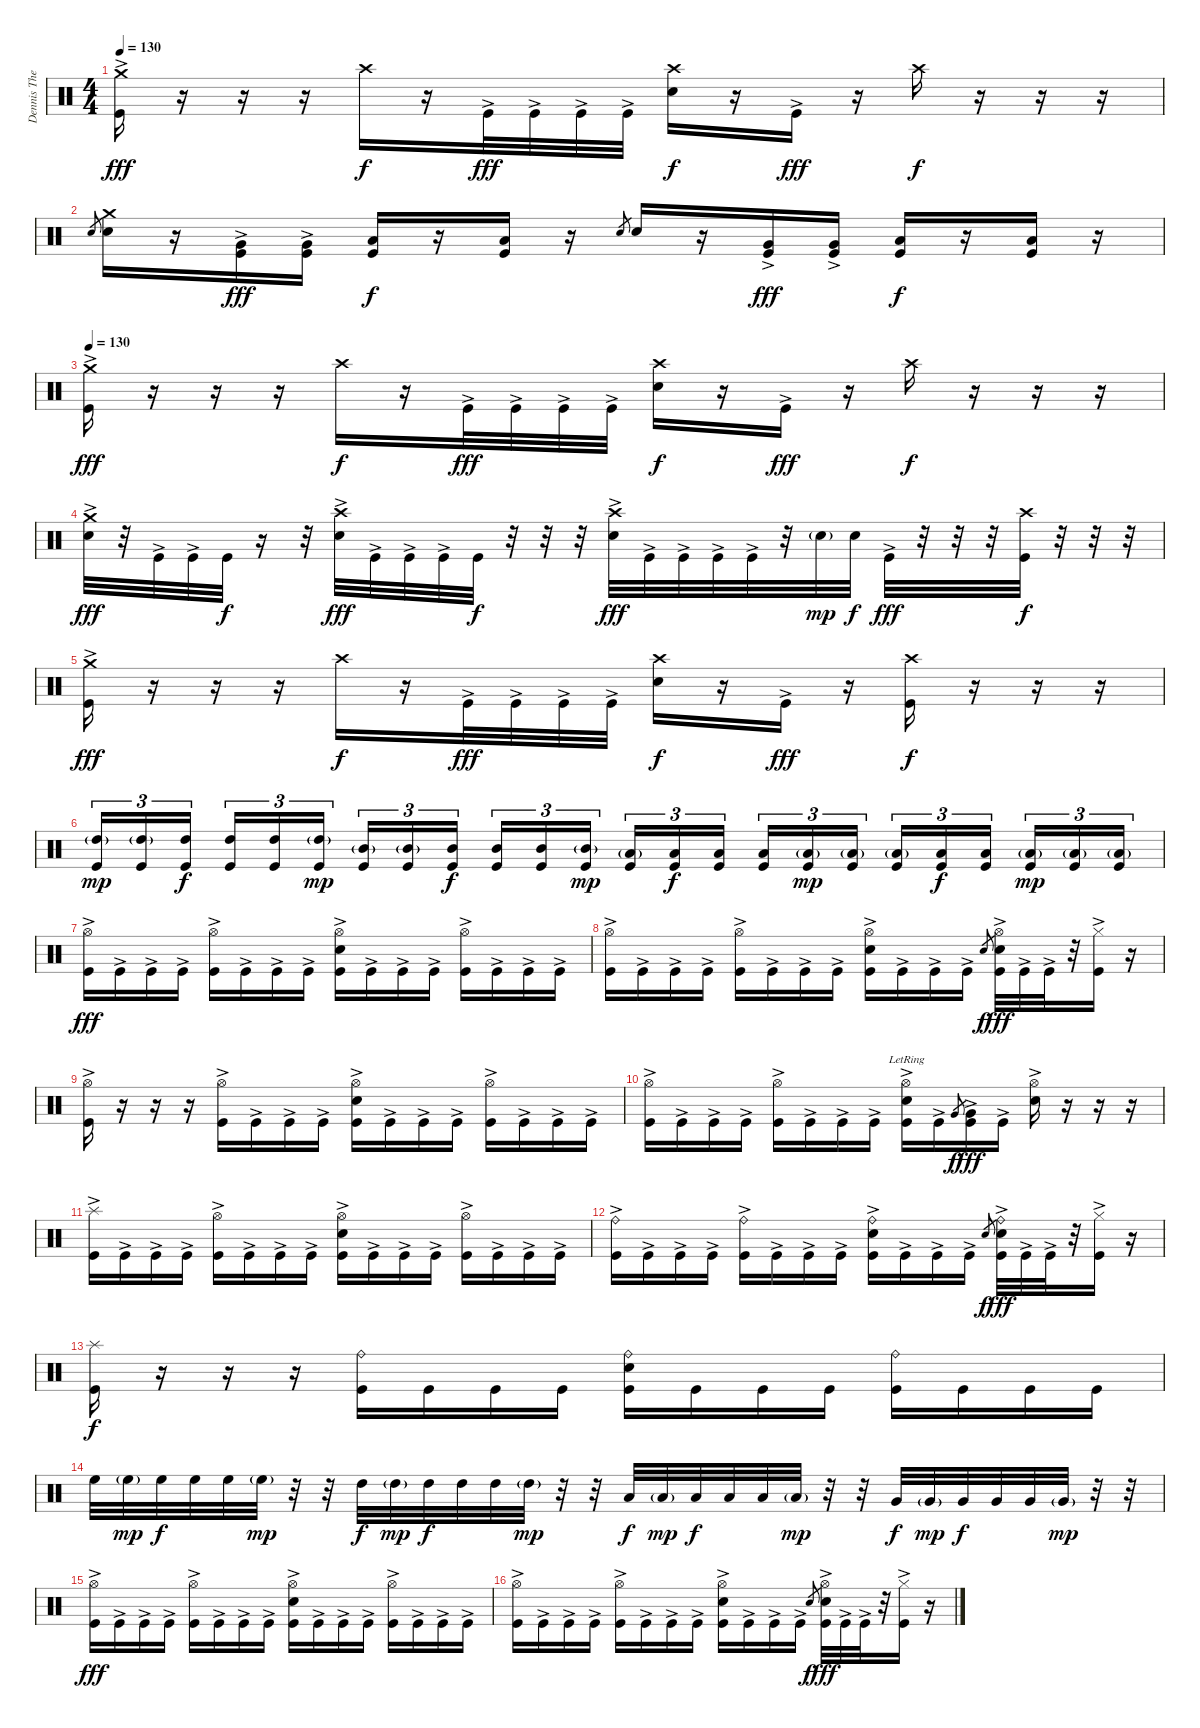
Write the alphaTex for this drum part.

\track ("Dennis The Menace" "Dennis The") {instrument percussion}
\staff {score}
\articulation defaults
\ts (4 4)
\tempo 130
\clef neutral
\ks c
("Crash medium (hit)" "Kick (hit)"{ac}).16{dy fff} r.16 r.16 r.16 "Crash high (hit)".16{dy f} r.16 "Kick (hit)"{ac}.32{dy fff} "Kick (hit)"{ac}.32 "Kick (hit)"{ac}.32 "Kick (hit)"{ac}.32 ("Crash high (hit)" "Electric Snare (hit)").16{dy f} r.16 "Kick (hit)"{ac}.16{dy fff} r.16 "Crash high (hit)".16{dy f} r.16 r.16 r.16 |
"Electric Snare (hit)".8{gr} ("Crash medium (hit)" "Electric Snare (hit)").16 r.16 ("Very Low Tom (hit)" "Kick (hit)"{ac}).16{dy fff} ("Very Low Tom (hit)" "Kick (hit)"{ac}).16 ("Low Floor Tom (hit)" "Kick (hit)").16{dy f} r.16 ("Low Floor Tom (hit)" "Kick (hit)").16 r.16 "Electric Snare (hit)".8{gr} "Electric Snare (hit)".16 r.16 ("Very Low Tom (hit)" "Kick (hit)"{ac}).16{dy fff} ("Very Low Tom (hit)" "Kick (hit)"{ac}).16 ("Low Floor Tom (hit)" "Kick (hit)").16{dy f} r.16 ("Low Floor Tom (hit)" "Kick (hit)").16 r.16 |
\tempo 130
("Crash medium (hit)" "Kick (hit)"{ac}).16{dy fff} r.16 r.16 r.16 "Crash high (hit)".16{dy f} r.16 "Kick (hit)"{ac}.32{dy fff} "Kick (hit)"{ac}.32 "Kick (hit)"{ac}.32 "Kick (hit)"{ac}.32 ("Crash high (hit)" "Electric Snare (hit)").16{dy f} r.16 "Kick (hit)"{ac}.16{dy fff} r.16 "Crash high (hit)".16{dy f} r.16 r.16 r.16 |
("Crash medium (hit)" "Electric Snare (hit)"{ac}).32{dy fff} r.32 "Kick (hit)"{ac}.32 "Kick (hit)"{ac}.32 "Kick (hit)".32{dy f} r.16 r.32 ("Crash high (hit)" "Electric Snare (hit)"{ac}).32{dy fff} "Kick (hit)"{ac}.32 "Kick (hit)"{ac}.32 "Kick (hit)"{ac}.32 "Kick (hit)".32{dy f} r.32 r.32 r.32 ("Crash high (hit)" "Electric Snare (hit)"{ac}).32{dy fff} "Kick (hit)"{ac}.32 "Kick (hit)"{ac}.32 "Kick (hit)"{ac}.32 "Kick (hit)"{ac}.32 r.32 "Electric Snare (hit)"{g}.32{dy mp} "Electric Snare (hit)".32{dy f} "Kick (hit)"{ac}.32{dy fff} r.32 r.32 r.32 ("Crash high (hit)" "Kick (hit)").32{dy f} r.32 r.32 r.32 |
("Crash medium (hit)" "Kick (hit)"{ac}).16{dy fff} r.16 r.16 r.16 "Crash high (hit)".16{dy f} r.16 "Kick (hit)"{ac}.32{dy fff} "Kick (hit)"{ac}.32 "Kick (hit)"{ac}.32 "Kick (hit)"{ac}.32 ("Crash high (hit)" "Electric Snare (hit)").16{dy f} r.16 "Kick (hit)"{ac}.16{dy fff} r.16 ("Crash high (hit)" "Kick (hit)").16{dy f} r.16 r.16 r.16 |
("High Tom (hit)"{g} "Kick (hit)").16{tu (3 2) dy mp} ("High Tom (hit)"{g} "Kick (hit)").16{tu (3 2)} ("High Tom (hit)" "Kick (hit)").16{tu (3 2) dy f} ("High Tom (hit)" "Kick (hit)").16{tu (3 2)} ("High Tom (hit)" "Kick (hit)").16{tu (3 2)} ("High Tom (hit)"{g} "Kick (hit)").16{tu (3 2) dy mp} ("Mid Tom (hit)"{g} "Kick (hit)").16{tu (3 2)} ("Mid Tom (hit)"{g} "Kick (hit)").16{tu (3 2)} ("Mid Tom (hit)" "Kick (hit)").16{tu (3 2) dy f} ("Mid Tom (hit)" "Kick (hit)").16{tu (3 2)} ("Mid Tom (hit)" "Kick (hit)").16{tu (3 2)} ("Mid Tom (hit)"{g} "Kick (hit)").16{tu (3 2) dy mp} ("Low Tom (hit)"{g} "Kick (hit)").16{tu (3 2)} ("Low Tom (hit)" "Kick (hit)").16{tu (3 2) dy f} ("Low Tom (hit)" "Kick (hit)").16{tu (3 2)} ("Low Tom (hit)" "Kick (hit)").16{tu (3 2)} ("Low Tom (hit)"{g} "Kick (hit)").16{tu (3 2) dy mp} ("Low Tom (hit)"{g} "Kick (hit)").16{tu (3 2)} ("Low Floor Tom (hit)"{g} "Kick (hit)").16{tu (3 2)} ("Low Floor Tom (hit)" "Kick (hit)").16{tu (3 2) dy f} ("Low Floor Tom (hit)" "Kick (hit)").16{tu (3 2)} ("Low Floor Tom (hit)"{g} "Kick (hit)").16{tu (3 2) dy mp} ("Low Floor Tom (hit)"{g} "Kick (hit)").16{tu (3 2)} ("Low Floor Tom (hit)"{g} "Kick (hit)").16{tu (3 2)} |
("Hi-Hat (open)" "Kick (hit)"{ac}).16{dy fff} "Kick (hit)"{ac}.16 "Kick (hit)"{ac}.16 "Kick (hit)"{ac}.16 ("Hi-Hat (open)" "Kick (hit)"{ac}).16 "Kick (hit)"{ac}.16 "Kick (hit)"{ac}.16 "Kick (hit)"{ac}.16 ("Hi-Hat (open)" "Electric Snare (hit)" "Kick (hit)"{ac}).16 "Kick (hit)"{ac}.16 "Kick (hit)"{ac}.16 "Kick (hit)"{ac}.16 ("Hi-Hat (open)" "Kick (hit)"{ac}).16 "Kick (hit)"{ac}.16 "Kick (hit)"{ac}.16 "Kick (hit)"{ac}.16 |
("Hi-Hat (open)" "Kick (hit)"{ac}).16 "Kick (hit)"{ac}.16 "Kick (hit)"{ac}.16 "Kick (hit)"{ac}.16 ("Hi-Hat (open)" "Kick (hit)"{ac}).16 "Kick (hit)"{ac}.16 "Kick (hit)"{ac}.16 "Kick (hit)"{ac}.16 ("Hi-Hat (open)" "Electric Snare (hit)"{ac} "Kick (hit)"{ac}).16 "Kick (hit)"{ac}.16 "Kick (hit)"{ac}.16 "Kick (hit)"{ac}.16 "Electric Snare (hit)".8{gr dy f} ("Hi-Hat (open)" "Electric Snare (hit)"{ac} "Kick (hit)"{ac}).32{dy fff} "Kick (hit)"{ac}.32 "Kick (hit)"{ac}.32 r.32 ("Hi-Hat (closed)" "Kick (hit)"{ac}).16 r.16 |
("Hi-Hat (open)" "Kick (hit)"{ac}).16 r.16 r.16 r.16 ("Hi-Hat (open)" "Kick (hit)"{ac}).16 "Kick (hit)"{ac}.16 "Kick (hit)"{ac}.16 "Kick (hit)"{ac}.16 ("Hi-Hat (open)" "Electric Snare (hit)" "Kick (hit)"{ac}).16 "Kick (hit)"{ac}.16 "Kick (hit)"{ac}.16 "Kick (hit)"{ac}.16 ("Hi-Hat (open)" "Kick (hit)"{ac}).16 "Kick (hit)"{ac}.16 "Kick (hit)"{ac}.16 "Kick (hit)"{ac}.16 |
("Hi-Hat (open)" "Kick (hit)"{ac}).16 "Kick (hit)"{ac}.16 "Kick (hit)"{ac}.16 "Kick (hit)"{ac}.16 ("Hi-Hat (open)" "Kick (hit)"{ac}).16 "Kick (hit)"{ac}.16 "Kick (hit)"{ac}.16 "Kick (hit)"{ac}.16 ("Hi-Hat (open)" "Electric Snare (hit)"{ac lr} "Kick (hit)"{ac}).16 "Kick (hit)"{ac}.16 "Very Low Tom (hit)".8{gr dy f} ("Very Low Tom (hit)" "Kick (hit)"{ac}).16{dy fff} "Kick (hit)"{ac}.16 ("Hi-Hat (open)" "Electric Snare (hit)"{ac}).16 r.16 r.16 r.16 |
("Splash (hit)" "Kick (hit)"{ac}).16 "Kick (hit)"{ac}.16 "Kick (hit)"{ac}.16 "Kick (hit)"{ac}.16 ("Hi-Hat (open)" "Kick (hit)"{ac}).16 "Kick (hit)"{ac}.16 "Kick (hit)"{ac}.16 "Kick (hit)"{ac}.16 ("Hi-Hat (open)" "Electric Snare (hit)" "Kick (hit)"{ac}).16 "Kick (hit)"{ac}.16 "Kick (hit)"{ac}.16 "Kick (hit)"{ac}.16 ("Hi-Hat (open)" "Kick (hit)"{ac}).16 "Kick (hit)"{ac}.16 "Kick (hit)"{ac}.16 "Kick (hit)"{ac}.16 |
("Ride (bell)" "Kick (hit)"{ac}).16 "Kick (hit)"{ac}.16 "Kick (hit)"{ac}.16 "Kick (hit)"{ac}.16 ("Ride (bell)" "Kick (hit)"{ac}).16 "Kick (hit)"{ac}.16 "Kick (hit)"{ac}.16 "Kick (hit)"{ac}.16 ("Ride (bell)" "Electric Snare (hit)"{ac} "Kick (hit)"{ac}).16 "Kick (hit)"{ac}.16 "Kick (hit)"{ac}.16 "Kick (hit)"{ac}.16 "Electric Snare (hit)".8{gr dy f} ("Ride (bell)" "Electric Snare (hit)"{ac} "Kick (hit)"{ac}).32{dy fff} "Kick (hit)"{ac}.32 "Kick (hit)"{ac}.32 r.32 ("Hi-Hat (closed)" "Kick (hit)"{ac}).16 r.16 |
("Splash (hit)" "Kick (hit)").16{dy f} r.16 r.16 r.16 ("Ride (bell)" "Kick (hit)").16 "Kick (hit)".16 "Kick (hit)".16 "Kick (hit)".16 ("Ride (bell)" "Electric Snare (hit)" "Kick (hit)").16 "Kick (hit)".16 "Kick (hit)".16 "Kick (hit)".16 ("Ride (bell)" "Kick (hit)").16 "Kick (hit)".16 "Kick (hit)".16 "Kick (hit)".16 |
"High Floor Tom (hit)".32 "High Floor Tom (hit)"{g}.32{dy mp} "High Floor Tom (hit)".32{dy f} "High Floor Tom (hit)".32 "High Floor Tom (hit)".32 "High Floor Tom (hit)"{g}.32{dy mp} r.32 r.32 "High Tom (hit)".32{dy f} "High Tom (hit)"{g}.32{dy mp} "High Tom (hit)".32{dy f} "High Tom (hit)".32 "High Tom (hit)".32 "High Tom (hit)"{g}.32{dy mp} r.32 r.32 "Low Tom (hit)".32{dy f} "Low Tom (hit)"{g}.32{dy mp} "Low Tom (hit)".32{dy f} "Low Tom (hit)".32 "Low Tom (hit)".32 "Low Tom (hit)"{g}.32{dy mp} r.32 r.32 "Very Low Tom (hit)".32{dy f} "Very Low Tom (hit)"{g}.32{dy mp} "Very Low Tom (hit)".32{dy f} "Very Low Tom (hit)".32 "Very Low Tom (hit)".32 "Very Low Tom (hit)"{g}.32{dy mp} r.32 r.32 |
("Hi-Hat (open)" "Kick (hit)"{ac}).16{dy fff} "Kick (hit)"{ac}.16 "Kick (hit)"{ac}.16 "Kick (hit)"{ac}.16 ("Hi-Hat (open)" "Kick (hit)"{ac}).16 "Kick (hit)"{ac}.16 "Kick (hit)"{ac}.16 "Kick (hit)"{ac}.16 ("Hi-Hat (open)" "Electric Snare (hit)" "Kick (hit)"{ac}).16 "Kick (hit)"{ac}.16 "Kick (hit)"{ac}.16 "Kick (hit)"{ac}.16 ("Hi-Hat (open)" "Kick (hit)"{ac}).16 "Kick (hit)"{ac}.16 "Kick (hit)"{ac}.16 "Kick (hit)"{ac}.16 |
("Hi-Hat (open)" "Kick (hit)"{ac}).16 "Kick (hit)"{ac}.16 "Kick (hit)"{ac}.16 "Kick (hit)"{ac}.16 ("Hi-Hat (open)" "Kick (hit)"{ac}).16 "Kick (hit)"{ac}.16 "Kick (hit)"{ac}.16 "Kick (hit)"{ac}.16 ("Hi-Hat (open)" "Electric Snare (hit)"{ac} "Kick (hit)"{ac}).16 "Kick (hit)"{ac}.16 "Kick (hit)"{ac}.16 "Kick (hit)"{ac}.16 "Electric Snare (hit)".8{gr dy f} ("Hi-Hat (open)" "Electric Snare (hit)"{ac} "Kick (hit)"{ac}).32{dy fff} "Kick (hit)"{ac}.32 "Kick (hit)"{ac}.32 r.32 ("Hi-Hat (closed)" "Kick (hit)"{ac}).16 r.16
